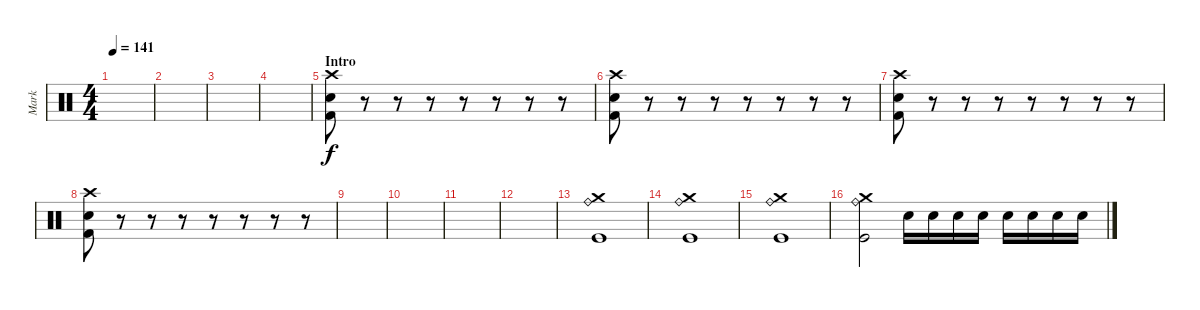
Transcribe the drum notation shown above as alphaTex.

\track ("Mark" "Mark") {instrument percussion}
\staff {score}
\articulation defaults
\ts (4 4)
\tempo 141
\clef neutral
\ks c
|
|
|
|
\section ("" "Intro")
("Crash high (hit)" "Electric Snare (hit)" "Kick (hit) 2").8 r.8 r.8 r.8 r.8 r.8 r.8 r.8 |
("Crash high (hit)" "Electric Snare (hit)" "Kick (hit) 2").8 r.8 r.8 r.8 r.8 r.8 r.8 r.8 |
("Crash high (hit)" "Electric Snare (hit)" "Kick (hit) 2").8 r.8 r.8 r.8 r.8 r.8 r.8 r.8 |
("Crash high (hit)" "Electric Snare (hit)" "Kick (hit) 2").8 r.8 r.8 r.8 r.8 r.8 r.8 r.8 |
|
|
|
|
("Crash medium (hit)" "Kick (hit)" "Ride (bell)").1 |
("Crash medium (hit)" "Kick (hit)" "Ride (bell)").1 |
("Crash medium (hit)" "Kick (hit)" "Ride (bell)").1 |
("Crash medium (hit)" "Kick (hit)" "Ride (bell)").2 "Electric Snare (hit)".16 "Electric Snare (hit)".16 "Electric Snare (hit)".16 "Electric Snare (hit)".16 "Electric Snare (hit)".16 "Electric Snare (hit)".16 "Electric Snare (hit)".16 "Electric Snare (hit)".16
